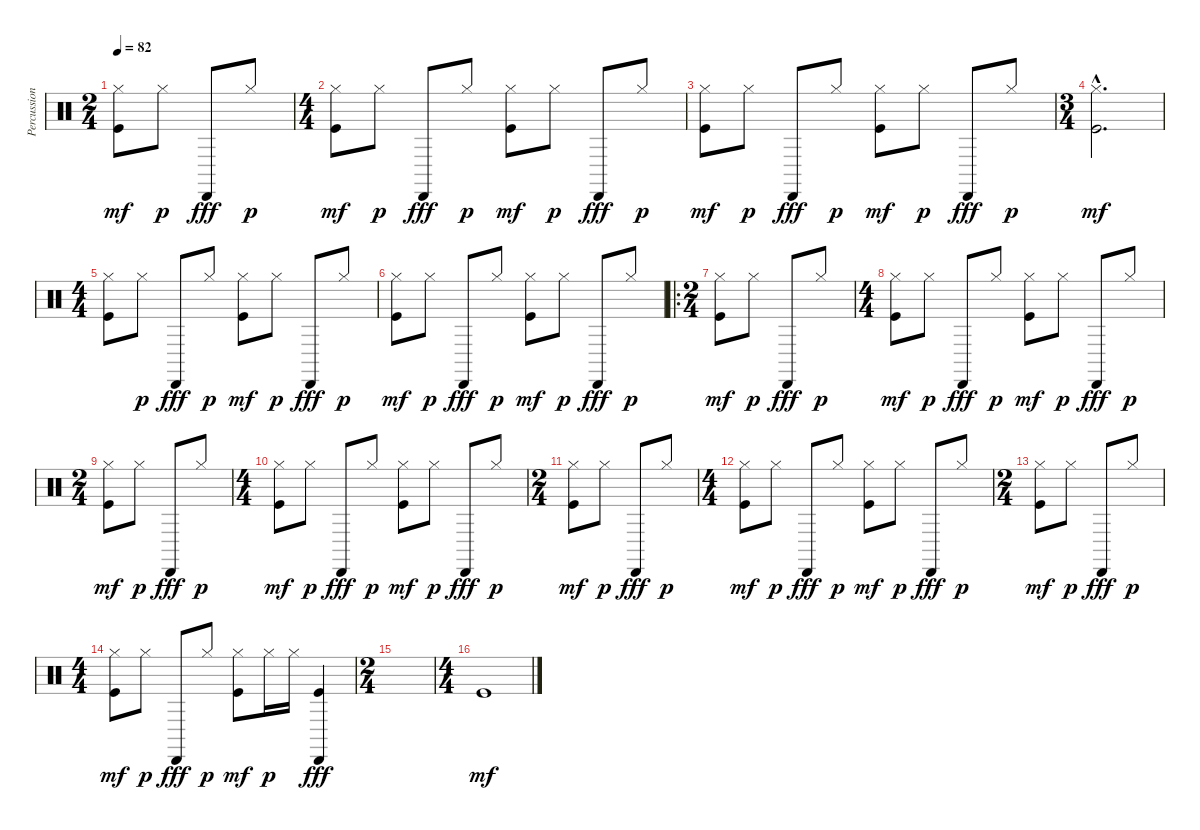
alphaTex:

\track ("Percussions" "Percussion") {instrument percussion}
\staff {score}
\articulation defaults
\ts (2 4)
\tempo 82
\clef neutral
\ks c
("Hi-Hat (closed)" "Kick (hit)").8{dy mf} "Hi-Hat (closed)".8{dy p} "Cabasa (hit)".8{dy fff} "Hi-Hat (closed)".8{dy p} |
\ts (4 4)
("Hi-Hat (closed)" "Kick (hit)").8{dy mf} "Hi-Hat (closed)".8{dy p} "Cabasa (hit)".8{dy fff} "Hi-Hat (closed)".8{dy p} ("Hi-Hat (closed)" "Kick (hit)").8{dy mf} "Hi-Hat (closed)".8{dy p} "Cabasa (hit)".8{dy fff} "Hi-Hat (closed)".8{dy p} |
("Hi-Hat (closed)" "Kick (hit)").8{dy mf} "Hi-Hat (closed)".8{dy p} "Cabasa (hit)".8{dy fff} "Hi-Hat (closed)".8{dy p} ("Hi-Hat (closed)" "Kick (hit)").8{dy mf} "Hi-Hat (closed)".8{dy p} "Cabasa (hit)".8{dy fff} "Hi-Hat (closed)".8{dy p} |
\ts (3 4)
("Hi-Hat (closed)"{hac} "Kick (hit)"{hac}).2{d dy mf} |
\ts (4 4)
("Hi-Hat (closed)" "Kick (hit)").8 "Hi-Hat (closed)".8{dy p} "Cabasa (hit)".8{dy fff} "Hi-Hat (closed)".8{dy p} ("Hi-Hat (closed)" "Kick (hit)").8{dy mf} "Hi-Hat (closed)".8{dy p} "Cabasa (hit)".8{dy fff} "Hi-Hat (closed)".8{dy p} |
("Hi-Hat (closed)" "Kick (hit)").8{dy mf} "Hi-Hat (closed)".8{dy p} "Cabasa (hit)".8{dy fff} "Hi-Hat (closed)".8{dy p} ("Hi-Hat (closed)" "Kick (hit)").8{dy mf} "Hi-Hat (closed)".8{dy p} "Cabasa (hit)".8{dy fff} "Hi-Hat (closed)".8{dy p} |
\ro
\ts (2 4)
("Hi-Hat (closed)" "Kick (hit)").8{dy mf} "Hi-Hat (closed)".8{dy p} "Cabasa (hit)".8{dy fff} "Hi-Hat (closed)".8{dy p} |
\ts (4 4)
("Hi-Hat (closed)" "Kick (hit)").8{dy mf} "Hi-Hat (closed)".8{dy p} "Cabasa (hit)".8{dy fff} "Hi-Hat (closed)".8{dy p} ("Hi-Hat (closed)" "Kick (hit)").8{dy mf} "Hi-Hat (closed)".8{dy p} "Cabasa (hit)".8{dy fff} "Hi-Hat (closed)".8{dy p} |
\ts (2 4)
("Hi-Hat (closed)" "Kick (hit)").8{dy mf} "Hi-Hat (closed)".8{dy p} "Cabasa (hit)".8{dy fff} "Hi-Hat (closed)".8{dy p} |
\ts (4 4)
("Hi-Hat (closed)" "Kick (hit)").8{dy mf} "Hi-Hat (closed)".8{dy p} "Cabasa (hit)".8{dy fff} "Hi-Hat (closed)".8{dy p} ("Hi-Hat (closed)" "Kick (hit)").8{dy mf} "Hi-Hat (closed)".8{dy p} "Cabasa (hit)".8{dy fff} "Hi-Hat (closed)".8{dy p} |
\ts (2 4)
("Hi-Hat (closed)" "Kick (hit)").8{dy mf} "Hi-Hat (closed)".8{dy p} "Cabasa (hit)".8{dy fff} "Hi-Hat (closed)".8{dy p} |
\ts (4 4)
("Hi-Hat (closed)" "Kick (hit)").8{dy mf} "Hi-Hat (closed)".8{dy p} "Cabasa (hit)".8{dy fff} "Hi-Hat (closed)".8{dy p} ("Hi-Hat (closed)" "Kick (hit)").8{dy mf} "Hi-Hat (closed)".8{dy p} "Cabasa (hit)".8{dy fff} "Hi-Hat (closed)".8{dy p} |
\ts (2 4)
("Hi-Hat (closed)" "Kick (hit)").8{dy mf} "Hi-Hat (closed)".8{dy p} "Cabasa (hit)".8{dy fff} "Hi-Hat (closed)".8{dy p} |
\ts (4 4)
("Hi-Hat (closed)" "Kick (hit)").8{dy mf} "Hi-Hat (closed)".8{dy p} "Cabasa (hit)".8{dy fff} "Hi-Hat (closed)".8{dy p} ("Hi-Hat (closed)" "Kick (hit)").8{dy mf} "Hi-Hat (closed)".16{dy p} "Hi-Hat (closed)".16 ("Cabasa (hit)" "Kick (hit)").4{dy fff} |
\ts (2 4)
|
\ts (4 4)
"Kick (hit)".1{dy mf}
